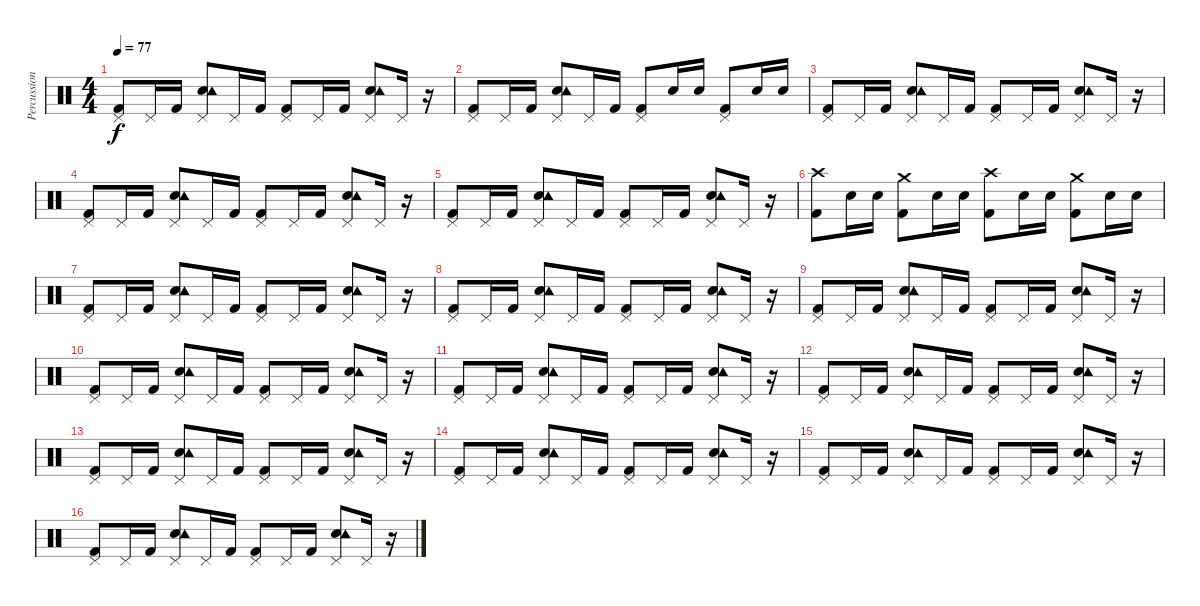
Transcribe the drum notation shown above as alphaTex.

\track ("Percussions" "Percussion") {instrument percussion}
\staff {score}
\articulation defaults
\ts (4 4)
\tempo 77
\clef neutral
\ks c
("Kick (hit) 2" "Pedal Hi-Hat (hit)").8{dy f} "Pedal Hi-Hat (hit)".16 "Kick (hit) 2".16 ("Snare (hit) 2" "Tambourine (hit)" "Pedal Hi-Hat (hit)").8 "Pedal Hi-Hat (hit)".16 "Kick (hit) 2".16 ("Kick (hit) 2" "Pedal Hi-Hat (hit)").8 "Pedal Hi-Hat (hit)".16 "Kick (hit) 2".16 ("Snare (hit) 2" "Tambourine (hit)" "Pedal Hi-Hat (hit)").8 "Pedal Hi-Hat (hit)".16 r.16 |
("Kick (hit) 2" "Pedal Hi-Hat (hit)").8 "Pedal Hi-Hat (hit)".16 "Kick (hit) 2".16 ("Snare (hit) 2" "Tambourine (hit)" "Pedal Hi-Hat (hit)").8 "Pedal Hi-Hat (hit)".16 "Kick (hit) 2".16 ("Kick (hit) 2" "Pedal Hi-Hat (hit)").8 "Snare (hit) 2".16 "Snare (hit) 2".16 ("Kick (hit) 2" "Pedal Hi-Hat (hit)").8 "Snare (hit) 2".16 "Snare (hit) 2".16 |
("Kick (hit) 2" "Pedal Hi-Hat (hit)").8 "Pedal Hi-Hat (hit)".16 "Kick (hit) 2".16 ("Snare (hit) 2" "Tambourine (hit)" "Pedal Hi-Hat (hit)").8 "Pedal Hi-Hat (hit)".16 "Kick (hit) 2".16 ("Kick (hit) 2" "Pedal Hi-Hat (hit)").8 "Pedal Hi-Hat (hit)".16 "Kick (hit) 2".16 ("Snare (hit) 2" "Tambourine (hit)" "Pedal Hi-Hat (hit)").8 "Pedal Hi-Hat (hit)".16 r.16 |
("Kick (hit) 2" "Pedal Hi-Hat (hit)").8 "Pedal Hi-Hat (hit)".16 "Kick (hit) 2".16 ("Snare (hit) 2" "Tambourine (hit)" "Pedal Hi-Hat (hit)").8 "Pedal Hi-Hat (hit)".16 "Kick (hit) 2".16 ("Kick (hit) 2" "Pedal Hi-Hat (hit)").8 "Pedal Hi-Hat (hit)".16 "Kick (hit) 2".16 ("Snare (hit) 2" "Tambourine (hit)" "Pedal Hi-Hat (hit)").8 "Pedal Hi-Hat (hit)".16 r.16 |
("Kick (hit) 2" "Pedal Hi-Hat (hit)").8 "Pedal Hi-Hat (hit)".16 "Kick (hit) 2".16 ("Snare (hit) 2" "Tambourine (hit)" "Pedal Hi-Hat (hit)").8 "Pedal Hi-Hat (hit)".16 "Kick (hit) 2".16 ("Kick (hit) 2" "Pedal Hi-Hat (hit)").8 "Pedal Hi-Hat (hit)".16 "Kick (hit) 2".16 ("Snare (hit) 2" "Tambourine (hit)" "Pedal Hi-Hat (hit)").8 "Pedal Hi-Hat (hit)".16 r.16 |
("Kick (hit) 2" "Crash high (hit)").8 "Snare (hit) 2".16 "Snare (hit) 2".16 ("Kick (hit) 2" "Crash medium (hit)").8 "Snare (hit) 2".16 "Snare (hit) 2".16 ("Kick (hit) 2" "Crash high (hit)").8 "Snare (hit) 2".16 "Snare (hit) 2".16 ("Kick (hit) 2" "Crash medium (hit)").8 "Snare (hit) 2".16 "Snare (hit) 2".16 |
("Kick (hit) 2" "Pedal Hi-Hat (hit)").8 "Pedal Hi-Hat (hit)".16 "Kick (hit) 2".16 ("Snare (hit) 2" "Tambourine (hit)" "Pedal Hi-Hat (hit)").8 "Pedal Hi-Hat (hit)".16 "Kick (hit) 2".16 ("Kick (hit) 2" "Pedal Hi-Hat (hit)").8 "Pedal Hi-Hat (hit)".16 "Kick (hit) 2".16 ("Snare (hit) 2" "Tambourine (hit)" "Pedal Hi-Hat (hit)").8 "Pedal Hi-Hat (hit)".16 r.16 |
("Kick (hit) 2" "Pedal Hi-Hat (hit)").8 "Pedal Hi-Hat (hit)".16 "Kick (hit) 2".16 ("Snare (hit) 2" "Tambourine (hit)" "Pedal Hi-Hat (hit)").8 "Pedal Hi-Hat (hit)".16 "Kick (hit) 2".16 ("Kick (hit) 2" "Pedal Hi-Hat (hit)").8 "Pedal Hi-Hat (hit)".16 "Kick (hit) 2".16 ("Snare (hit) 2" "Tambourine (hit)" "Pedal Hi-Hat (hit)").8 "Pedal Hi-Hat (hit)".16 r.16 |
("Kick (hit) 2" "Pedal Hi-Hat (hit)").8 "Pedal Hi-Hat (hit)".16 "Kick (hit) 2".16 ("Snare (hit) 2" "Tambourine (hit)" "Pedal Hi-Hat (hit)").8 "Pedal Hi-Hat (hit)".16 "Kick (hit) 2".16 ("Kick (hit) 2" "Pedal Hi-Hat (hit)").8 "Pedal Hi-Hat (hit)".16 "Kick (hit) 2".16 ("Snare (hit) 2" "Tambourine (hit)" "Pedal Hi-Hat (hit)").8 "Pedal Hi-Hat (hit)".16 r.16 |
("Kick (hit) 2" "Pedal Hi-Hat (hit)").8 "Pedal Hi-Hat (hit)".16 "Kick (hit) 2".16 ("Snare (hit) 2" "Tambourine (hit)" "Pedal Hi-Hat (hit)").8 "Pedal Hi-Hat (hit)".16 "Kick (hit) 2".16 ("Kick (hit) 2" "Pedal Hi-Hat (hit)").8 "Pedal Hi-Hat (hit)".16 "Kick (hit) 2".16 ("Snare (hit) 2" "Tambourine (hit)" "Pedal Hi-Hat (hit)").8 "Pedal Hi-Hat (hit)".16 r.16 |
("Kick (hit) 2" "Pedal Hi-Hat (hit)").8 "Pedal Hi-Hat (hit)".16 "Kick (hit) 2".16 ("Snare (hit) 2" "Tambourine (hit)" "Pedal Hi-Hat (hit)").8 "Pedal Hi-Hat (hit)".16 "Kick (hit) 2".16 ("Kick (hit) 2" "Pedal Hi-Hat (hit)").8 "Pedal Hi-Hat (hit)".16 "Kick (hit) 2".16 ("Snare (hit) 2" "Tambourine (hit)" "Pedal Hi-Hat (hit)").8 "Pedal Hi-Hat (hit)".16 r.16 |
("Kick (hit) 2" "Pedal Hi-Hat (hit)").8 "Pedal Hi-Hat (hit)".16 "Kick (hit) 2".16 ("Snare (hit) 2" "Tambourine (hit)" "Pedal Hi-Hat (hit)").8 "Pedal Hi-Hat (hit)".16 "Kick (hit) 2".16 ("Kick (hit) 2" "Pedal Hi-Hat (hit)").8 "Pedal Hi-Hat (hit)".16 "Kick (hit) 2".16 ("Snare (hit) 2" "Tambourine (hit)" "Pedal Hi-Hat (hit)").8 "Pedal Hi-Hat (hit)".16 r.16 |
("Kick (hit) 2" "Pedal Hi-Hat (hit)").8 "Pedal Hi-Hat (hit)".16 "Kick (hit) 2".16 ("Snare (hit) 2" "Tambourine (hit)" "Pedal Hi-Hat (hit)").8 "Pedal Hi-Hat (hit)".16 "Kick (hit) 2".16 ("Kick (hit) 2" "Pedal Hi-Hat (hit)").8 "Pedal Hi-Hat (hit)".16 "Kick (hit) 2".16 ("Snare (hit) 2" "Tambourine (hit)" "Pedal Hi-Hat (hit)").8 "Pedal Hi-Hat (hit)".16 r.16 |
("Kick (hit) 2" "Pedal Hi-Hat (hit)").8 "Pedal Hi-Hat (hit)".16 "Kick (hit) 2".16 ("Snare (hit) 2" "Tambourine (hit)" "Pedal Hi-Hat (hit)").8 "Pedal Hi-Hat (hit)".16 "Kick (hit) 2".16 ("Kick (hit) 2" "Pedal Hi-Hat (hit)").8 "Pedal Hi-Hat (hit)".16 "Kick (hit) 2".16 ("Snare (hit) 2" "Tambourine (hit)" "Pedal Hi-Hat (hit)").8 "Pedal Hi-Hat (hit)".16 r.16 |
("Kick (hit) 2" "Pedal Hi-Hat (hit)").8 "Pedal Hi-Hat (hit)".16 "Kick (hit) 2".16 ("Snare (hit) 2" "Tambourine (hit)" "Pedal Hi-Hat (hit)").8 "Pedal Hi-Hat (hit)".16 "Kick (hit) 2".16 ("Kick (hit) 2" "Pedal Hi-Hat (hit)").8 "Pedal Hi-Hat (hit)".16 "Kick (hit) 2".16 ("Snare (hit) 2" "Tambourine (hit)" "Pedal Hi-Hat (hit)").8 "Pedal Hi-Hat (hit)".16 r.16 |
("Kick (hit) 2" "Pedal Hi-Hat (hit)").8 "Pedal Hi-Hat (hit)".16 "Kick (hit) 2".16 ("Snare (hit) 2" "Tambourine (hit)" "Pedal Hi-Hat (hit)").8 "Pedal Hi-Hat (hit)".16 "Kick (hit) 2".16 ("Kick (hit) 2" "Pedal Hi-Hat (hit)").8 "Pedal Hi-Hat (hit)".16 "Kick (hit) 2".16 ("Snare (hit) 2" "Tambourine (hit)" "Pedal Hi-Hat (hit)").8 "Pedal Hi-Hat (hit)".16 r.16
